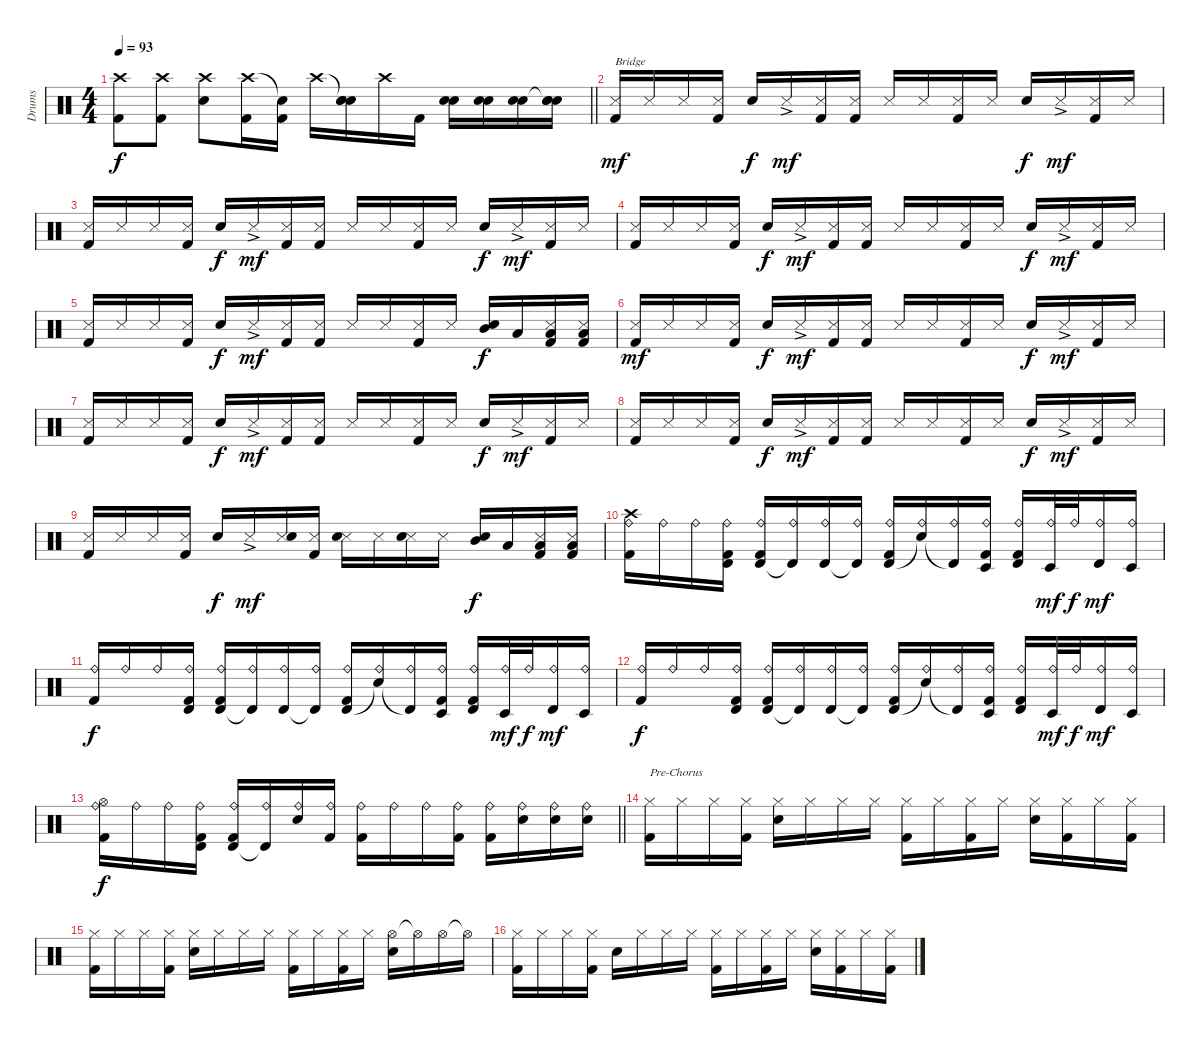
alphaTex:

\track ("Drums" "Drums") {instrument percussion}
\staff {score}
\articulation defaults
\ts (4 4)
\tempo 93
\clef neutral
\barLineRight lightlight
\ks c
("Crash high (hit)" "Kick (hit) 2").8{dy f} ("Crash high (hit)" "Kick (hit) 2").8 ("Crash high (hit)" "Electric Snare (hit)").8 ("Crash high (hit)" "Kick (hit) 2").16 ("Snare (hit)"{t} "Kick (hit) 2").16 "Crash high (hit)".16 ("Snare (hit)"{t} "Electric Snare (hit)" "Electric Snare (hit)").16 "Crash high (hit)".16 "Kick (hit) 2".16 ("Electric Snare (hit)" "Electric Snare (hit)").16 ("Electric Snare (hit)" "Electric Snare (hit)").16 ("Electric Snare (hit)" "Electric Snare (hit)").16 ("Snare (hit)"{t} "Electric Snare (hit)" "Electric Snare (hit)").16 |
("Snare (side stick) 3" "Kick (hit) 2").16{txt "Bridge" dy mf} "Snare (side stick) 3".16 "Snare (side stick) 3".16 ("Snare (side stick) 3" "Kick (hit) 2").16 "Electric Snare (hit)".16{dy f} "Snare (side stick) 3"{ac}.16{dy mf} ("Snare (side stick) 3" "Kick (hit) 2").16 ("Snare (side stick) 3" "Kick (hit) 2").16 "Snare (side stick) 3".16 "Snare (side stick) 3".16 ("Snare (side stick) 3" "Kick (hit) 2").16 "Snare (side stick) 3".16 "Electric Snare (hit)".16{dy f} "Snare (side stick) 3"{ac}.16{dy mf} ("Snare (side stick) 3" "Kick (hit) 2").16 "Snare (side stick) 3".16 |
("Snare (side stick) 3" "Kick (hit) 2").16 "Snare (side stick) 3".16 "Snare (side stick) 3".16 ("Snare (side stick) 3" "Kick (hit) 2").16 "Electric Snare (hit)".16{dy f} "Snare (side stick) 3"{ac}.16{dy mf} ("Snare (side stick) 3" "Kick (hit) 2").16 ("Snare (side stick) 3" "Kick (hit) 2").16 "Snare (side stick) 3".16 "Snare (side stick) 3".16 ("Snare (side stick) 3" "Kick (hit) 2").16 "Snare (side stick) 3".16 "Electric Snare (hit)".16{dy f} "Snare (side stick) 3"{ac}.16{dy mf} ("Snare (side stick) 3" "Kick (hit) 2").16 "Snare (side stick) 3".16 |
("Snare (side stick) 3" "Kick (hit) 2").16 "Snare (side stick) 3".16 "Snare (side stick) 3".16 ("Snare (side stick) 3" "Kick (hit) 2").16 "Electric Snare (hit)".16{dy f} "Snare (side stick) 3"{ac}.16{dy mf} ("Snare (side stick) 3" "Kick (hit) 2").16 ("Snare (side stick) 3" "Kick (hit) 2").16 "Snare (side stick) 3".16 "Snare (side stick) 3".16 ("Snare (side stick) 3" "Kick (hit) 2").16 "Snare (side stick) 3".16 "Electric Snare (hit)".16{dy f} "Snare (side stick) 3"{ac}.16{dy mf} ("Snare (side stick) 3" "Kick (hit) 2").16 "Snare (side stick) 3".16 |
("Snare (side stick) 3" "Kick (hit) 2").16 "Snare (side stick) 3".16 "Snare (side stick) 3".16 ("Snare (side stick) 3" "Kick (hit) 2").16 "Electric Snare (hit)".16{dy f} "Snare (side stick) 3"{ac}.16{dy mf} ("Snare (side stick) 3" "Kick (hit) 2").16 ("Snare (side stick) 3" "Kick (hit) 2").16 "Snare (side stick) 3".16 "Snare (side stick) 3".16 ("Snare (side stick) 3" "Kick (hit) 2").16 "Snare (side stick) 3".16 ("Electric Snare (hit)" "Mid Tom (hit)").16{dy f} "Low Tom (hit)".16 ("Snare (side stick) 3" "Low Floor Tom (hit)" "Kick (hit) 2").16 ("Snare (side stick) 3" "Low Floor Tom (hit)" "Kick (hit) 2").16 |
("Snare (side stick) 3" "Kick (hit) 2").16{dy mf} "Snare (side stick) 3".16 "Snare (side stick) 3".16 ("Snare (side stick) 3" "Kick (hit) 2").16 "Electric Snare (hit)".16{dy f} "Snare (side stick) 3"{ac}.16{dy mf} ("Snare (side stick) 3" "Kick (hit) 2").16 ("Snare (side stick) 3" "Kick (hit) 2").16 "Snare (side stick) 3".16 "Snare (side stick) 3".16 ("Snare (side stick) 3" "Kick (hit) 2").16 "Snare (side stick) 3".16 "Electric Snare (hit)".16{dy f} "Snare (side stick) 3"{ac}.16{dy mf} ("Snare (side stick) 3" "Kick (hit) 2").16 "Snare (side stick) 3".16 |
("Snare (side stick) 3" "Kick (hit) 2").16 "Snare (side stick) 3".16 "Snare (side stick) 3".16 ("Snare (side stick) 3" "Kick (hit) 2").16 "Electric Snare (hit)".16{dy f} "Snare (side stick) 3"{ac}.16{dy mf} ("Snare (side stick) 3" "Kick (hit) 2").16 ("Snare (side stick) 3" "Kick (hit) 2").16 "Snare (side stick) 3".16 "Snare (side stick) 3".16 ("Snare (side stick) 3" "Kick (hit) 2").16 "Snare (side stick) 3".16 "Electric Snare (hit)".16{dy f} "Snare (side stick) 3"{ac}.16{dy mf} ("Snare (side stick) 3" "Kick (hit) 2").16 "Snare (side stick) 3".16 |
("Snare (side stick) 3" "Kick (hit) 2").16 "Snare (side stick) 3".16 "Snare (side stick) 3".16 ("Snare (side stick) 3" "Kick (hit) 2").16 "Electric Snare (hit)".16{dy f} "Snare (side stick) 3"{ac}.16{dy mf} ("Snare (side stick) 3" "Kick (hit) 2").16 ("Snare (side stick) 3" "Kick (hit) 2").16 "Snare (side stick) 3".16 "Snare (side stick) 3".16 ("Snare (side stick) 3" "Kick (hit) 2").16 "Snare (side stick) 3".16 "Electric Snare (hit)".16{dy f} "Snare (side stick) 3"{ac}.16{dy mf} ("Snare (side stick) 3" "Kick (hit) 2").16 "Snare (side stick) 3".16 |
("Snare (side stick) 3" "Kick (hit) 2").16 "Snare (side stick) 3".16 "Snare (side stick) 3".16 ("Snare (side stick) 3" "Kick (hit) 2").16 "Electric Snare (hit)".16{dy f} "Snare (side stick) 3"{ac}.16{dy mf} ("Snare (side stick) 3" "Electric Snare (hit)").16 ("Snare (side stick) 3" "Kick (hit) 2").16 ("Snare (side stick) 3" "Electric Snare (hit)").16 "Snare (side stick) 3".16 ("Snare (side stick) 3" "Electric Snare (hit)").16 "Snare (side stick) 3".16 ("Electric Snare (hit)" "Mid Tom (hit)").16{dy f} "Low Tom (hit)".16 ("Snare (side stick) 3" "Low Floor Tom (hit)" "Kick (hit) 2").16 ("Snare (side stick) 3" "Low Tom (hit)" "Kick (hit) 2").16 |
("Ride (bell)" "Crash high (hit)" "Kick (hit) 2").16 "Ride (bell)".16 "Ride (bell)".16 ("Ride (bell)" "Timbale high (hit)" "Kick (hit) 2").16 ("Ride (bell)" "Timbale high (hit)" "Kick (hit) 2").16 ("Ride (bell)" "Timbale high (hit)"{t}).16 ("Ride (bell)" "Timbale high (hit)").16 ("Ride (bell)" "Timbale high (hit)"{t}).16 ("Ride (bell)" "Timbale high (hit)" "Kick (hit) 2").16 ("Ride (bell)" "Snare (hit)"{t}).16 ("Ride (bell)" "Timbale high (hit)"{t}).16 ("Ride (bell)" "Timbale low (hit)" "Kick (hit) 2").16 ("Ride (bell)" "Timbale high (hit)" "Kick (hit) 2").16 ("Ride (bell)" "Timbale low (hit)").32{dy mf} "Ride (bell)".32{dy f} ("Ride (bell)" "Timbale high (hit)").16{dy mf} ("Ride (bell)" "Timbale low (hit)").16 |
("Ride (bell)" "Kick (hit) 2").16{dy f} "Ride (bell)".16 "Ride (bell)".16 ("Ride (bell)" "Timbale high (hit)" "Kick (hit) 2").16 ("Ride (bell)" "Timbale high (hit)" "Kick (hit) 2").16 ("Ride (bell)" "Timbale high (hit)"{t}).16 ("Ride (bell)" "Timbale high (hit)").16 ("Ride (bell)" "Timbale high (hit)"{t}).16 ("Ride (bell)" "Timbale high (hit)" "Kick (hit) 2").16 ("Ride (bell)" "Snare (hit)"{t}).16 ("Ride (bell)" "Timbale high (hit)"{t}).16 ("Ride (bell)" "Timbale low (hit)" "Kick (hit) 2").16 ("Ride (bell)" "Timbale high (hit)" "Kick (hit) 2").16 ("Ride (bell)" "Timbale low (hit)").32{dy mf} "Ride (bell)".32{dy f} ("Ride (bell)" "Timbale high (hit)").16{dy mf} ("Ride (bell)" "Timbale low (hit)").16 |
("Ride (bell)" "Kick (hit) 2").16{dy f} "Ride (bell)".16 "Ride (bell)".16 ("Ride (bell)" "Timbale high (hit)" "Kick (hit) 2").16 ("Ride (bell)" "Timbale high (hit)" "Kick (hit) 2").16 ("Ride (bell)" "Timbale high (hit)"{t}).16 ("Ride (bell)" "Timbale high (hit)").16 ("Ride (bell)" "Timbale high (hit)"{t}).16 ("Ride (bell)" "Timbale high (hit)" "Kick (hit) 2").16 ("Ride (bell)" "Snare (hit)"{t}).16 ("Ride (bell)" "Timbale high (hit)"{t}).16 ("Ride (bell)" "Timbale low (hit)" "Kick (hit) 2").16 ("Ride (bell)" "Timbale high (hit)" "Kick (hit) 2").16 ("Ride (bell)" "Timbale low (hit)").32{dy mf} "Ride (bell)".32{dy f} ("Ride (bell)" "Timbale high (hit)").16{dy mf} ("Ride (bell)" "Timbale low (hit)").16 |
\barLineRight lightlight
("Ride (bell)" "Hi-Hat (open)" "Kick (hit) 2").16{dy f} "Ride (bell)".16 "Ride (bell)".16 ("Ride (bell)" "Timbale high (hit)" "Kick (hit) 2").16 ("Ride (bell)" "Timbale high (hit)" "Kick (hit) 2").16 ("Ride (bell)" "Timbale high (hit)"{t}).16 ("Ride (bell)" "Electric Snare (hit)").16 ("Ride (bell)" "Kick (hit) 2").16 ("Ride (bell)" "Kick (hit) 2").16 "Ride (bell)".16 "Ride (bell)".16 ("Ride (bell)" "Kick (hit) 2").16 ("Ride (bell)" "Kick (hit) 2").16 ("Ride (bell)" "Electric Snare (hit)").16 ("Ride (bell)" "Electric Snare (hit)").16 ("Ride (bell)" "Electric Snare (hit)").16 |
("Hi-Hat (closed)" "Kick (hit) 2").16{txt "Pre-Chorus"} "Hi-Hat (closed)".16 "Hi-Hat (closed)".16 ("Hi-Hat (closed)" "Kick (hit) 2").16 ("Hi-Hat (closed)" "Electric Snare (hit)").16 "Hi-Hat (closed)".16 "Hi-Hat (closed)".16 "Hi-Hat (closed)".16 ("Hi-Hat (closed)" "Kick (hit) 2").16 "Hi-Hat (closed)".16 ("Hi-Hat (closed)" "Kick (hit) 2").16 "Hi-Hat (closed)".16 ("Hi-Hat (closed)" "Electric Snare (hit)").16 ("Hi-Hat (closed)" "Kick (hit) 2").16 "Hi-Hat (closed)".16 ("Hi-Hat (closed)" "Kick (hit) 2").16 |
("Hi-Hat (closed)" "Kick (hit) 2").16 "Hi-Hat (closed)".16 "Hi-Hat (closed)".16 ("Hi-Hat (closed)" "Kick (hit) 2").16 ("Hi-Hat (closed)" "Electric Snare (hit)").16 "Hi-Hat (closed)".16 "Hi-Hat (closed)".16 "Hi-Hat (closed)".16 ("Hi-Hat (closed)" "Kick (hit) 2").16 "Hi-Hat (closed)".16 ("Hi-Hat (closed)" "Kick (hit) 2").16 "Hi-Hat (closed)".16 ("Hi-Hat (open)" "Electric Snare (hit)").16 "Hi-Hat (open)"{t}.16 "Hi-Hat (open)".16 "Hi-Hat (open)"{t}.16 |
("Hi-Hat (closed)" "Kick (hit) 2").16 "Hi-Hat (closed)".16 "Hi-Hat (closed)".16 ("Hi-Hat (closed)" "Kick (hit) 2").16 "Electric Snare (hit)".16 "Hi-Hat (closed)".16 "Hi-Hat (closed)".16 "Hi-Hat (closed)".16 ("Hi-Hat (closed)" "Kick (hit) 2").16 "Hi-Hat (closed)".16 ("Hi-Hat (closed)" "Kick (hit) 2").16 "Hi-Hat (closed)".16 ("Hi-Hat (closed)" "Electric Snare (hit)").16 ("Hi-Hat (closed)" "Kick (hit) 2").16 "Hi-Hat (closed)".16 ("Hi-Hat (closed)" "Kick (hit) 2").16
